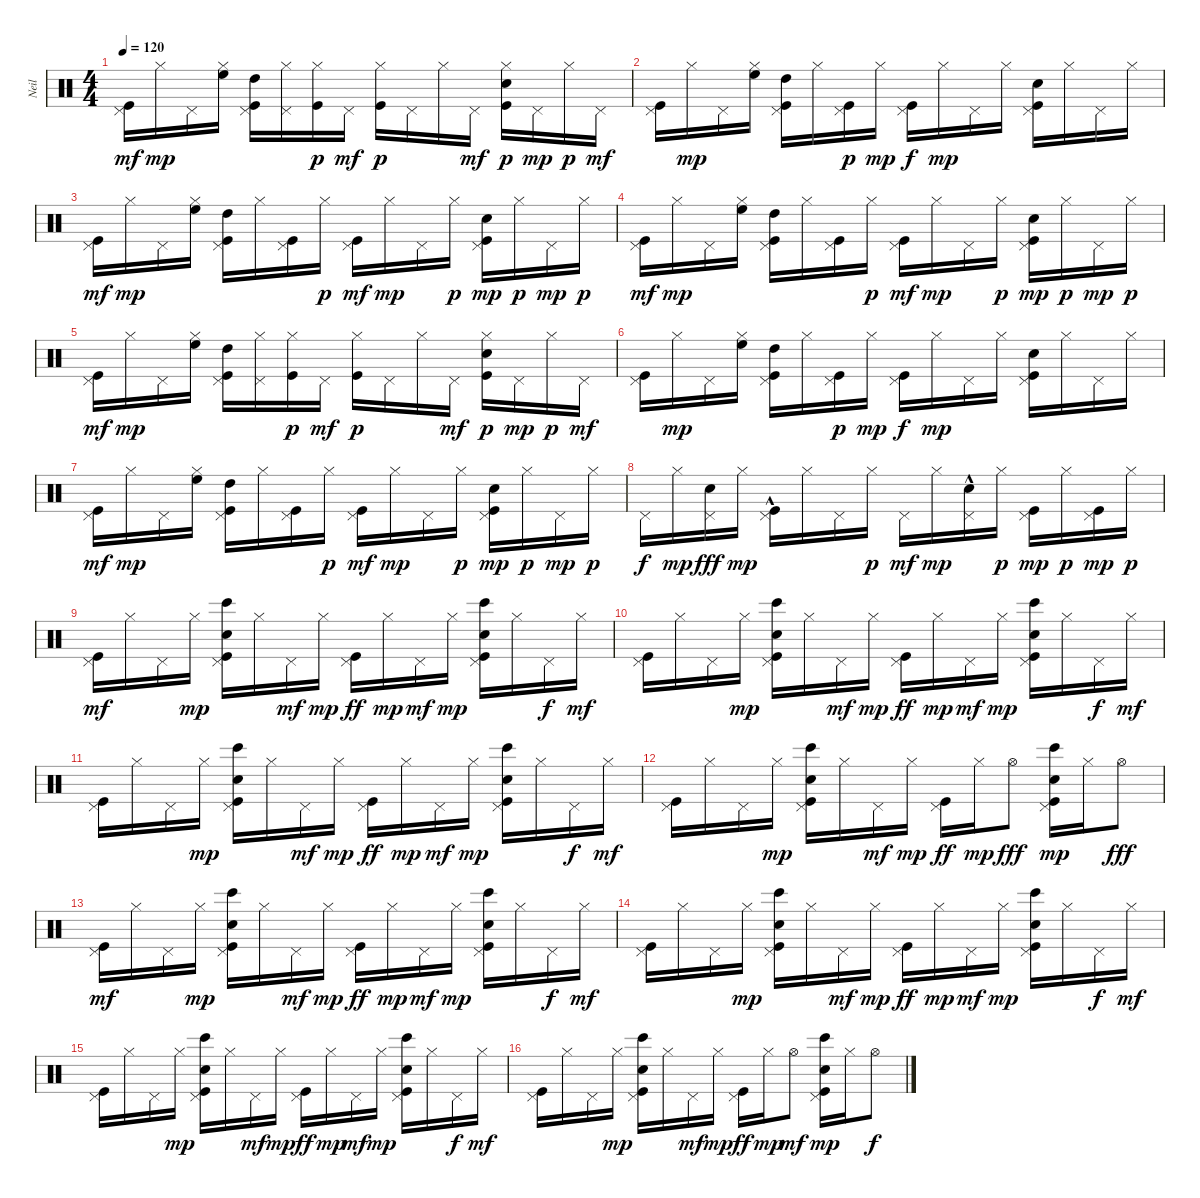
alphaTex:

\track ("Neil" "Neil") {instrument percussion}
\staff {score}
\articulation defaults
\ts (4 4)
\tempo 120
\clef neutral
\ks c
("Kick (hit)" "Pedal Hi-Hat (hit)").16{dy mf} "Hi-Hat (closed)".16{dy mp volume 12} "Pedal Hi-Hat (hit)".16{volume 12} ("High Floor Tom (hit)" "Hi-Hat (closed)").16 ("Kick (hit)" "High Tom (hit)" "Pedal Hi-Hat (hit)").16 ("Hi-Hat (closed)" "Pedal Hi-Hat (hit)").16{volume 12} ("Kick (hit)" "Hi-Hat (closed)").16{dy p} "Pedal Hi-Hat (hit)".16{dy mf} ("Kick (hit)" "Hi-Hat (closed)").16{dy p} "Pedal Hi-Hat (hit)".16 "Hi-Hat (closed)".16 "Pedal Hi-Hat (hit)".16{dy mf volume 11} ("Kick (hit)" "Electric Snare (hit)" "Hi-Hat (closed)").16{dy p volume 12} "Pedal Hi-Hat (hit)".16{dy mp} "Hi-Hat (closed)".16{dy p} "Pedal Hi-Hat (hit)".16{dy mf volume 11} |
("Kick (hit)" "Pedal Hi-Hat (hit)").16{volume 12} "Hi-Hat (closed)".16{dy mp} "Pedal Hi-Hat (hit)".16 ("High Floor Tom (hit)" "Hi-Hat (closed)").16 ("Kick (hit)" "High Tom (hit)" "Pedal Hi-Hat (hit)").16 "Hi-Hat (closed)".16 ("Kick (hit)" "Pedal Hi-Hat (hit)").16{dy p} "Hi-Hat (closed)".16{dy mp} ("Kick (hit)" "Pedal Hi-Hat (hit)").16{dy f} "Hi-Hat (closed)".16{dy mp} "Pedal Hi-Hat (hit)".16 "Hi-Hat (closed)".16 ("Kick (hit)" "Electric Snare (hit)" "Pedal Hi-Hat (hit)").16 "Hi-Hat (closed)".16 "Pedal Hi-Hat (hit)".16 "Hi-Hat (closed)".16 |
("Kick (hit)" "Pedal Hi-Hat (hit)").16{dy mf} "Hi-Hat (closed)".16{dy mp} "Pedal Hi-Hat (hit)".16 ("High Floor Tom (hit)" "Hi-Hat (closed)").16 ("Kick (hit)" "High Tom (hit)" "Pedal Hi-Hat (hit)").16 "Hi-Hat (closed)".16 ("Kick (hit)" "Pedal Hi-Hat (hit)").16 "Hi-Hat (closed)".16{dy p} ("Kick (hit)" "Pedal Hi-Hat (hit)").16{dy mf} "Hi-Hat (closed)".16{dy mp} "Pedal Hi-Hat (hit)".16 "Hi-Hat (closed)".16{dy p} ("Kick (hit)" "Electric Snare (hit)" "Pedal Hi-Hat (hit)").16{dy mp} "Hi-Hat (closed)".16{dy p} "Pedal Hi-Hat (hit)".16{dy mp} "Hi-Hat (closed)".16{dy p} |
("Kick (hit)" "Pedal Hi-Hat (hit)").16{dy mf} "Hi-Hat (closed)".16{dy mp} "Pedal Hi-Hat (hit)".16 ("High Floor Tom (hit)" "Hi-Hat (closed)").16 ("Kick (hit)" "High Tom (hit)" "Pedal Hi-Hat (hit)").16 "Hi-Hat (closed)".16 ("Kick (hit)" "Pedal Hi-Hat (hit)").16 "Hi-Hat (closed)".16{dy p} ("Kick (hit)" "Pedal Hi-Hat (hit)").16{dy mf} "Hi-Hat (closed)".16{dy mp} "Pedal Hi-Hat (hit)".16 "Hi-Hat (closed)".16{dy p} ("Kick (hit)" "Electric Snare (hit)" "Pedal Hi-Hat (hit)").16{dy mp} "Hi-Hat (closed)".16{dy p} "Pedal Hi-Hat (hit)".16{dy mp} "Hi-Hat (closed)".16{dy p} |
("Kick (hit)" "Pedal Hi-Hat (hit)").16{dy mf} "Hi-Hat (closed)".16{dy mp} "Pedal Hi-Hat (hit)".16 ("High Floor Tom (hit)" "Hi-Hat (closed)").16 ("Kick (hit)" "High Tom (hit)" "Pedal Hi-Hat (hit)").16 ("Hi-Hat (closed)" "Pedal Hi-Hat (hit)").16 ("Kick (hit)" "Hi-Hat (closed)").16{dy p} "Pedal Hi-Hat (hit)".16{dy mf} ("Kick (hit)" "Hi-Hat (closed)").16{dy p} "Pedal Hi-Hat (hit)".16 "Hi-Hat (closed)".16 "Pedal Hi-Hat (hit)".16{dy mf} ("Kick (hit)" "Electric Snare (hit)" "Hi-Hat (closed)").16{dy p} "Pedal Hi-Hat (hit)".16{dy mp} "Hi-Hat (closed)".16{dy p} "Pedal Hi-Hat (hit)".16{dy mf} |
("Kick (hit)" "Pedal Hi-Hat (hit)").16 "Hi-Hat (closed)".16{dy mp} "Pedal Hi-Hat (hit)".16 ("High Floor Tom (hit)" "Hi-Hat (closed)").16 ("Kick (hit)" "High Tom (hit)" "Pedal Hi-Hat (hit)").16 "Hi-Hat (closed)".16 ("Kick (hit)" "Pedal Hi-Hat (hit)").16{dy p} "Hi-Hat (closed)".16{dy mp} ("Kick (hit)" "Pedal Hi-Hat (hit)").16{dy f} "Hi-Hat (closed)".16{dy mp} "Pedal Hi-Hat (hit)".16 "Hi-Hat (closed)".16 ("Kick (hit)" "Electric Snare (hit)" "Pedal Hi-Hat (hit)").16 "Hi-Hat (closed)".16 "Pedal Hi-Hat (hit)".16 "Hi-Hat (closed)".16 |
("Kick (hit)" "Pedal Hi-Hat (hit)").16{dy mf} "Hi-Hat (closed)".16{dy mp} "Pedal Hi-Hat (hit)".16 ("High Floor Tom (hit)" "Hi-Hat (closed)").16 ("Kick (hit)" "High Tom (hit)" "Pedal Hi-Hat (hit)").16 "Hi-Hat (closed)".16 ("Kick (hit)" "Pedal Hi-Hat (hit)").16 "Hi-Hat (closed)".16{dy p} ("Kick (hit)" "Pedal Hi-Hat (hit)").16{dy mf} "Hi-Hat (closed)".16{dy mp} "Pedal Hi-Hat (hit)".16 "Hi-Hat (closed)".16{dy p} ("Kick (hit)" "Electric Snare (hit)" "Pedal Hi-Hat (hit)").16{dy mp} "Hi-Hat (closed)".16{dy p} "Pedal Hi-Hat (hit)".16{dy mp} "Hi-Hat (closed)".16{dy p} |
"Pedal Hi-Hat (hit)".16{dy f} "Hi-Hat (closed)".16{dy mp} ("Pedal Hi-Hat (hit)" "Electric Snare (hit)").16{dy fff} "Hi-Hat (closed)".16{dy mp} ("Pedal Hi-Hat (hit)" "Kick (hit)"{hac}).16 "Hi-Hat (closed)".16 "Pedal Hi-Hat (hit)".16 "Hi-Hat (closed)".16{dy p} "Pedal Hi-Hat (hit)".16{dy mf} "Hi-Hat (closed)".16{dy mp} ("Pedal Hi-Hat (hit)" "Electric Snare (hit)"{hac}).16 "Hi-Hat (closed)".16{dy p} ("Pedal Hi-Hat (hit)" "Kick (hit)").16{dy mp} "Hi-Hat (closed)".16{dy p} ("Pedal Hi-Hat (hit)" "Kick (hit)").16{dy mp} "Hi-Hat (closed)".16{dy p} |
("Pedal Hi-Hat (hit)" "Kick (hit)").16{dy mf} "Hi-Hat (closed)".16 "Pedal Hi-Hat (hit)".16{volume 11} "Hi-Hat (closed)".16{dy mp} ("Electric Snare (hit)" "Pedal Hi-Hat (hit)" "Kick (hit)" "Bongo High (hit)").16 "Hi-Hat (closed)".16{volume 11} "Pedal Hi-Hat (hit)".16{dy mf volume 11} "Hi-Hat (closed)".16{dy mp volume 11} ("Pedal Hi-Hat (hit)" "Kick (hit)").16{dy ff volume 11} "Hi-Hat (closed)".16{dy mp} "Pedal Hi-Hat (hit)".16{dy mf} "Hi-Hat (closed)".16{dy mp} ("Electric Snare (hit)" "Pedal Hi-Hat (hit)" "Kick (hit)" "Bongo High (hit)").16 "Hi-Hat (closed)".16 "Pedal Hi-Hat (hit)".16{dy f} "Hi-Hat (closed)".16{dy mf} |
("Pedal Hi-Hat (hit)" "Kick (hit)").16 "Hi-Hat (closed)".16{volume 11} "Pedal Hi-Hat (hit)".16{volume 11} "Hi-Hat (closed)".16{dy mp} ("Electric Snare (hit)" "Pedal Hi-Hat (hit)" "Kick (hit)" "Bongo High (hit)").16 "Hi-Hat (closed)".16{volume 10} "Pedal Hi-Hat (hit)".16{dy mf} "Hi-Hat (closed)".16{dy mp volume 10} ("Pedal Hi-Hat (hit)" "Kick (hit)").16{dy ff} "Hi-Hat (closed)".16{dy mp} "Pedal Hi-Hat (hit)".16{dy mf} "Hi-Hat (closed)".16{dy mp volume 10} ("Electric Snare (hit)" "Pedal Hi-Hat (hit)" "Kick (hit)" "Bongo High (hit)").16{volume 10} "Hi-Hat (closed)".16 "Pedal Hi-Hat (hit)".16{dy f} "Hi-Hat (closed)".16{dy mf volume 10} |
("Pedal Hi-Hat (hit)" "Kick (hit)").16 "Hi-Hat (closed)".16 "Pedal Hi-Hat (hit)".16 "Hi-Hat (closed)".16{dy mp} ("Electric Snare (hit)" "Pedal Hi-Hat (hit)" "Kick (hit)" "Bongo High (hit)").16{volume 10} "Hi-Hat (closed)".16 "Pedal Hi-Hat (hit)".16{dy mf} "Hi-Hat (closed)".16{dy mp} ("Pedal Hi-Hat (hit)" "Kick (hit)").16{dy ff} "Hi-Hat (closed)".16{dy mp} "Pedal Hi-Hat (hit)".16{dy mf} "Hi-Hat (closed)".16{dy mp} ("Electric Snare (hit)" "Pedal Hi-Hat (hit)" "Kick (hit)" "Bongo High (hit)").16 "Hi-Hat (closed)".16 "Pedal Hi-Hat (hit)".16{dy f} "Hi-Hat (closed)".16{dy mf} |
("Pedal Hi-Hat (hit)" "Kick (hit)").16 "Hi-Hat (closed)".16 "Pedal Hi-Hat (hit)".16 "Hi-Hat (closed)".16{dy mp} ("Electric Snare (hit)" "Pedal Hi-Hat (hit)" "Kick (hit)" "Bongo High (hit)").16 "Hi-Hat (closed)".16 "Pedal Hi-Hat (hit)".16{dy mf} "Hi-Hat (closed)".16{dy mp} ("Pedal Hi-Hat (hit)" "Kick (hit)").16{dy ff} "Hi-Hat (closed)".16{dy mp} "Hi-Hat (open)".8{dy fff} ("Electric Snare (hit)" "Pedal Hi-Hat (hit)" "Kick (hit)" "Bongo High (hit)").16{dy mp} "Hi-Hat (closed)".16 "Hi-Hat (open)".8{dy fff} |
("Pedal Hi-Hat (hit)" "Kick (hit)").16{dy mf} "Hi-Hat (closed)".16 "Pedal Hi-Hat (hit)".16 "Hi-Hat (closed)".16{dy mp} ("Electric Snare (hit)" "Pedal Hi-Hat (hit)" "Kick (hit)" "Bongo High (hit)").16 "Hi-Hat (closed)".16 "Pedal Hi-Hat (hit)".16{dy mf} "Hi-Hat (closed)".16{dy mp} ("Pedal Hi-Hat (hit)" "Kick (hit)").16{dy ff} "Hi-Hat (closed)".16{dy mp} "Pedal Hi-Hat (hit)".16{dy mf} "Hi-Hat (closed)".16{dy mp} ("Electric Snare (hit)" "Pedal Hi-Hat (hit)" "Kick (hit)" "Bongo High (hit)").16 "Hi-Hat (closed)".16 "Pedal Hi-Hat (hit)".16{dy f} "Hi-Hat (closed)".16{dy mf} |
("Pedal Hi-Hat (hit)" "Kick (hit)").16 "Hi-Hat (closed)".16 "Pedal Hi-Hat (hit)".16 "Hi-Hat (closed)".16{dy mp} ("Electric Snare (hit)" "Pedal Hi-Hat (hit)" "Kick (hit)" "Bongo High (hit)").16 "Hi-Hat (closed)".16 "Pedal Hi-Hat (hit)".16{dy mf} "Hi-Hat (closed)".16{dy mp} ("Pedal Hi-Hat (hit)" "Kick (hit)").16{dy ff} "Hi-Hat (closed)".16{dy mp} "Pedal Hi-Hat (hit)".16{dy mf} "Hi-Hat (closed)".16{dy mp} ("Electric Snare (hit)" "Pedal Hi-Hat (hit)" "Kick (hit)" "Bongo High (hit)").16 "Hi-Hat (closed)".16 "Pedal Hi-Hat (hit)".16{dy f} "Hi-Hat (closed)".16{dy mf} |
("Pedal Hi-Hat (hit)" "Kick (hit)").16 "Hi-Hat (closed)".16 "Pedal Hi-Hat (hit)".16 "Hi-Hat (closed)".16{dy mp} ("Electric Snare (hit)" "Pedal Hi-Hat (hit)" "Kick (hit)" "Bongo High (hit)").16 "Hi-Hat (closed)".16 "Pedal Hi-Hat (hit)".16{dy mf} "Hi-Hat (closed)".16{dy mp} ("Pedal Hi-Hat (hit)" "Kick (hit)").16{dy ff} "Hi-Hat (closed)".16{dy mp} "Pedal Hi-Hat (hit)".16{dy mf} "Hi-Hat (closed)".16{dy mp} ("Electric Snare (hit)" "Pedal Hi-Hat (hit)" "Kick (hit)" "Bongo High (hit)").16 "Hi-Hat (closed)".16 "Pedal Hi-Hat (hit)".16{dy f} "Hi-Hat (closed)".16{dy mf} |
("Pedal Hi-Hat (hit)" "Kick (hit)").16 "Hi-Hat (closed)".16{volume 10} "Pedal Hi-Hat (hit)".16 "Hi-Hat (closed)".16{dy mp} ("Electric Snare (hit)" "Pedal Hi-Hat (hit)" "Kick (hit)" "Bongo High (hit)").16 "Hi-Hat (closed)".16 "Pedal Hi-Hat (hit)".16{dy mf} "Hi-Hat (closed)".16{dy mp} ("Pedal Hi-Hat (hit)" "Kick (hit)").16{dy ff} "Hi-Hat (closed)".16{dy mp} "Hi-Hat (open)".8{dy mf} ("Electric Snare (hit)" "Pedal Hi-Hat (hit)" "Kick (hit)" "Bongo High (hit)").16{dy mp} "Hi-Hat (closed)".16 "Hi-Hat (open)".8{dy f}
